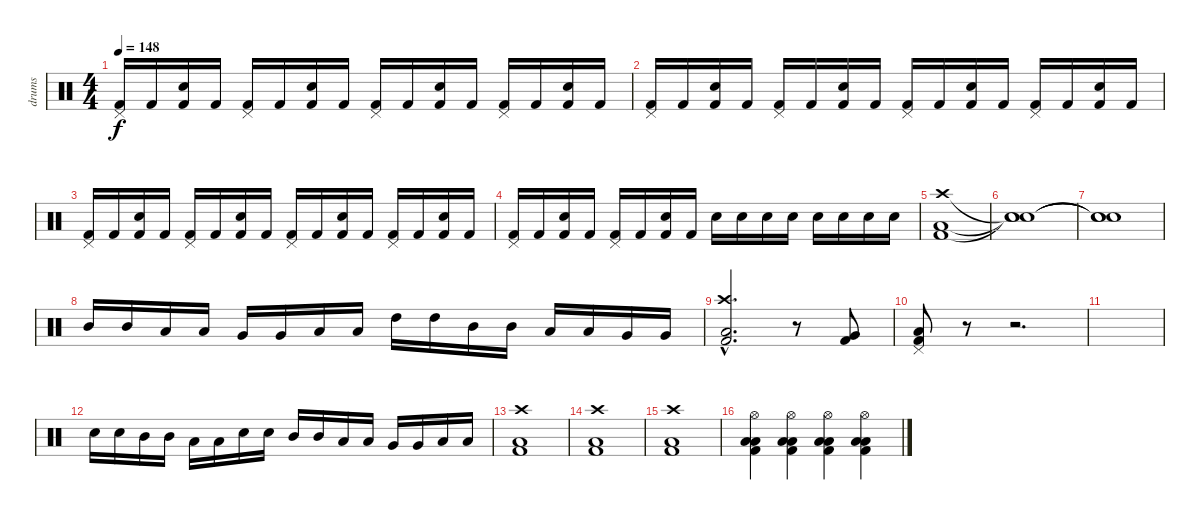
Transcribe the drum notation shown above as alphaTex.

\track ("drums" "drums") {instrument percussion}
\staff {score}
\articulation defaults
\ts (4 4)
\tempo 148
\clef neutral
\ks c
("Pedal Hi-Hat (hit)" "Kick (hit) 2").16{dy f} "Kick (hit) 2".16 ("Electric Snare (hit)" "Kick (hit) 2").16 "Kick (hit) 2".16 ("Pedal Hi-Hat (hit)" "Kick (hit) 2").16 "Kick (hit) 2".16 ("Electric Snare (hit)" "Kick (hit) 2").16 "Kick (hit) 2".16 ("Pedal Hi-Hat (hit)" "Kick (hit) 2").16 "Kick (hit) 2".16 ("Electric Snare (hit)" "Kick (hit) 2").16 "Kick (hit) 2".16 ("Pedal Hi-Hat (hit)" "Kick (hit) 2").16 "Kick (hit) 2".16 ("Electric Snare (hit)" "Kick (hit) 2").16 "Kick (hit) 2".16 |
("Pedal Hi-Hat (hit)" "Kick (hit) 2").16 "Kick (hit) 2".16 ("Electric Snare (hit)" "Kick (hit) 2").16 "Kick (hit) 2".16 ("Pedal Hi-Hat (hit)" "Kick (hit) 2").16 "Kick (hit) 2".16 ("Electric Snare (hit)" "Kick (hit) 2").16 "Kick (hit) 2".16 ("Pedal Hi-Hat (hit)" "Kick (hit) 2").16 "Kick (hit) 2".16 ("Electric Snare (hit)" "Kick (hit) 2").16 "Kick (hit) 2".16 ("Pedal Hi-Hat (hit)" "Kick (hit) 2").16 "Kick (hit) 2".16 ("Electric Snare (hit)" "Kick (hit) 2").16 "Kick (hit) 2".16 |
("Pedal Hi-Hat (hit)" "Kick (hit) 2").16 "Kick (hit) 2".16 ("Electric Snare (hit)" "Kick (hit) 2").16 "Kick (hit) 2".16 ("Pedal Hi-Hat (hit)" "Kick (hit) 2").16 "Kick (hit) 2".16 ("Electric Snare (hit)" "Kick (hit) 2").16 "Kick (hit) 2".16 ("Pedal Hi-Hat (hit)" "Kick (hit) 2").16 "Kick (hit) 2".16 ("Electric Snare (hit)" "Kick (hit) 2").16 "Kick (hit) 2".16 ("Pedal Hi-Hat (hit)" "Kick (hit) 2").16 "Kick (hit) 2".16 ("Electric Snare (hit)" "Kick (hit) 2").16 "Kick (hit) 2".16 |
("Pedal Hi-Hat (hit)" "Kick (hit) 2").16 "Kick (hit) 2".16 ("Electric Snare (hit)" "Kick (hit) 2").16 "Kick (hit) 2".16 ("Pedal Hi-Hat (hit)" "Kick (hit) 2").16 "Kick (hit) 2".16 ("Electric Snare (hit)" "Kick (hit) 2").16 "Kick (hit) 2".16 "Electric Snare (hit)".16 "Electric Snare (hit)".16 "Electric Snare (hit)".16 "Electric Snare (hit)".16 "Electric Snare (hit)".16 "Electric Snare (hit)".16 "Electric Snare (hit)".16 "Electric Snare (hit)".16 |
("Crash high (hit)" "Low Floor Tom (hit)" "Kick (hit) 2").1 |
("Snare (hit)"{t} "Snare (hit)"{t} "Snare (hit)"{t}).1 |
("Snare (hit)"{t} "Snare (hit)"{t} "Snare (hit)"{t}).1 |
"Mid Tom (hit)".16 "Mid Tom (hit)".16 "Low Tom (hit)".16 "Low Tom (hit)".16 "Very Low Tom (hit)".16 "Very Low Tom (hit)".16 "Low Floor Tom (hit)".16 "Low Floor Tom (hit)".16 "High Tom (hit)".16 "High Tom (hit)".16 "Mid Tom (hit)".16 "Mid Tom (hit)".16 "Low Tom (hit)".16 "Low Tom (hit)".16 "Very Low Tom (hit)".16 "Very Low Tom (hit)".16 |
("Crash high (hit)"{hac} "Low Floor Tom (hit)"{hac} "Kick (hit) 2"{hac}).2{d} r.8 ("Very Low Tom (hit)" "Kick (hit) 2").8 |
("Pedal Hi-Hat (hit)" "Low Floor Tom (hit)" "Kick (hit) 2").8 r.8 r.2{d} |
|
"Snare (hit) 2".16 "Snare (hit) 2".16 "Mid Tom (hit)".16 "Mid Tom (hit)".16 "Low Tom (hit)".16 "Low Tom (hit)".16 "Snare (hit) 2".16 "Snare (hit) 2".16 "Mid Tom (hit)".16 "Mid Tom (hit)".16 "Low Tom (hit)".16 "Low Tom (hit)".16 "Very Low Tom (hit)".16 "Very Low Tom (hit)".16 "Low Floor Tom (hit)".16 "Low Floor Tom (hit)".16 |
("Crash high (hit)" "Low Floor Tom (hit)" "Kick (hit) 2").1 |
("Crash high (hit)" "Low Floor Tom (hit)" "Kick (hit) 2").1 |
("Crash high (hit)" "Low Floor Tom (hit)" "Kick (hit) 2").1 |
("Hi-Hat (open)" "Low Floor Tom (hit)" "Low Floor Tom (hit)" "Kick (hit) 2").4 ("Hi-Hat (open)" "Low Floor Tom (hit)" "Low Floor Tom (hit)" "Kick (hit) 2").4 ("Hi-Hat (open)" "Low Floor Tom (hit)" "Low Floor Tom (hit)" "Kick (hit) 2").4 ("Hi-Hat (open)" "Low Floor Tom (hit)" "Low Floor Tom (hit)" "Kick (hit) 2").4
